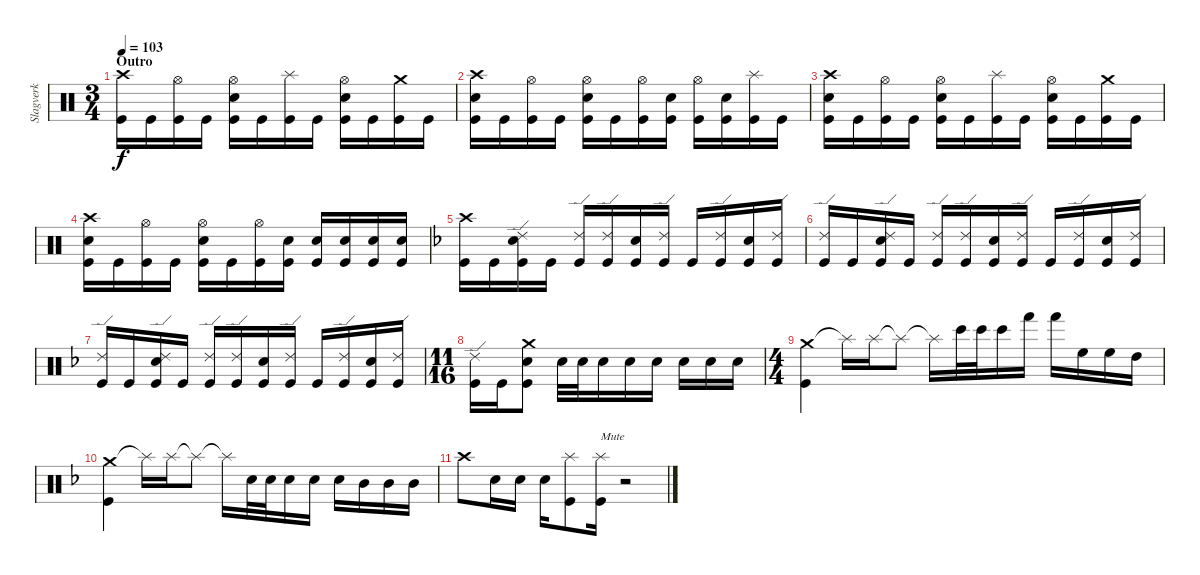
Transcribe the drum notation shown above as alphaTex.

\track ("Slagverk" "Slagverk") {instrument percussion}
\staff {score}
\articulation defaults
\ts (3 4)
\section ("" "Outro")
\tempo 103
\clef neutral
\ks c
("Crash high (hit)" "Kick (hit)").16{dy f} "Kick (hit)".16 ("Hi-Hat (open)" "Kick (hit)").16 "Kick (hit)".16 ("Hi-Hat (open)" "Electric Snare (hit)" "Kick (hit)").16 "Kick (hit)".16 ("Splash (hit)" "Kick (hit)").16 "Kick (hit)".16 ("Hi-Hat (open)" "Electric Snare (hit)" "Kick (hit)").16 "Kick (hit)".16 ("Crash medium (hit)" "Kick (hit)").16 "Kick (hit)".16 |
("Crash high (hit)" "Electric Snare (hit)" "Kick (hit)").16 "Kick (hit)".16 ("Hi-Hat (open)" "Kick (hit)").16 "Kick (hit)".16 ("Hi-Hat (open)" "Electric Snare (hit)" "Kick (hit)").16 "Kick (hit)".16 ("Hi-Hat (open)" "Kick (hit)").16 ("Electric Snare (hit)" "Kick (hit)").16 ("Hi-Hat (open)" "Kick (hit)").16 ("Electric Snare (hit)" "Kick (hit)").16 ("Splash (hit)" "Kick (hit)").16 "Kick (hit)".16 |
("Crash high (hit)" "Electric Snare (hit)" "Kick (hit)").16 "Kick (hit)".16 ("Hi-Hat (open)" "Kick (hit)").16 "Kick (hit)".16 ("Hi-Hat (open)" "Electric Snare (hit)" "Kick (hit)").16 "Kick (hit)".16 ("Splash (hit)" "Kick (hit)").16 "Kick (hit)".16 ("Hi-Hat (open)" "Electric Snare (hit)" "Kick (hit)").16 "Kick (hit)".16 ("Crash medium (hit)" "Kick (hit)").16 "Kick (hit)".16 |
("Crash high (hit)" "Electric Snare (hit)" "Kick (hit)").16 "Kick (hit)".16 ("Hi-Hat (open)" "Kick (hit)").16 "Kick (hit)".16 ("Hi-Hat (open)" "Electric Snare (hit)" "Kick (hit)").16 "Kick (hit)".16 ("Hi-Hat (open)" "Kick (hit)").16 ("Electric Snare (hit)" "Kick (hit)").16 ("Electric Snare (hit)" "Kick (hit)").16 ("Electric Snare (hit)" "Kick (hit)").16 ("Electric Snare (hit)" "Kick (hit)").16 ("Electric Snare (hit)" "Kick (hit)").16 |
\ks f
("Crash high (hit)" "Kick (hit)").16 "Kick (hit)".16 ("Ride (edge) 2" "Electric Snare (hit)" "Kick (hit)").16 "Kick (hit)".16 ("Ride (edge) 2" "Kick (hit)").16 ("Ride (edge) 2" "Kick (hit)").16 ("Electric Snare (hit)" "Kick (hit)").16 ("Ride (edge) 2" "Kick (hit)").16 "Kick (hit)".16 ("Ride (edge) 2" "Kick (hit)").16 ("Electric Snare (hit)" "Kick (hit)").16 ("Ride (edge) 2" "Kick (hit)").16 |
("Ride (edge) 2" "Kick (hit)").16 "Kick (hit)".16 ("Ride (edge) 2" "Electric Snare (hit)" "Kick (hit)").16 "Kick (hit)".16 ("Ride (edge) 2" "Kick (hit)").16 ("Ride (edge) 2" "Kick (hit)").16 ("Electric Snare (hit)" "Kick (hit)").16 ("Ride (edge) 2" "Kick (hit)").16 "Kick (hit)".16 ("Ride (edge) 2" "Kick (hit)").16 ("Electric Snare (hit)" "Kick (hit)").16 ("Ride (edge) 2" "Kick (hit)").16 |
("Ride (edge) 2" "Kick (hit)").16 "Kick (hit)".16 ("Ride (edge) 2" "Electric Snare (hit)" "Kick (hit)").16 "Kick (hit)".16 ("Ride (edge) 2" "Kick (hit)").16 ("Ride (edge) 2" "Kick (hit)").16 ("Electric Snare (hit)" "Kick (hit)").16 ("Ride (edge) 2" "Kick (hit)").16 "Kick (hit)".16 ("Ride (edge) 2" "Kick (hit)").16 ("Electric Snare (hit)" "Kick (hit)").16 ("Ride (edge) 2" "Kick (hit)").16 |
\ts (11 16)
("Ride (edge) 2" "Kick (hit)").16{beam merge} "Kick (hit)".16{beam merge} ("Crash medium (hit)" "Electric Snare (hit)" "Kick (hit)").8 "Electric Snare (hit)".32 "Electric Snare (hit)".32{beam merge} "Electric Snare (hit)".16{beam merge} "Electric Snare (hit)".16{beam merge} "Electric Snare (hit)".16 "Electric Snare (hit)".16{beam merge} "Electric Snare (hit)".16{beam merge} "Electric Snare (hit)".16 |
\ts (4 4)
("Crash medium (hit)" "Kick (hit)").4 "Splash (hit)"{t}.16 "Splash (hit)".16 "Splash (hit)"{t}.8 "Splash (hit)"{t}.16 "Bongo High (hit)".32 "Bongo High (hit)".32 "Bongo High (hit)".16 "Hand (hit)".16 "Hand (hit)".16 "High Floor Tom (hit)".16 "High Floor Tom (hit)".16 "High Tom (hit)".16 |
("Crash medium (hit)" "Kick (hit)").4 "Splash (hit)"{t}.16 "Splash (hit)".16 "Splash (hit)"{t}.8 "Splash (hit)"{t}.16{beam merge} "Electric Snare (hit)".32 "Electric Snare (hit)".32{beam merge} "Electric Snare (hit)".16{beam merge} "Electric Snare (hit)".16{beam split} "Electric Snare (hit)".16 "Mid Tom (hit)".16{beam merge} "Mid Tom (hit)".16{beam merge} "Mid Tom (hit)".16 |
"Crash high (hit)".8 "Electric Snare (hit)".16 "Electric Snare (hit)".16 "Electric Snare (hit)".16 ("Splash (hit)" "Kick (hit)").8 ("Splash (hit)" "Kick (hit)").16{txt "Mute"} r.2
